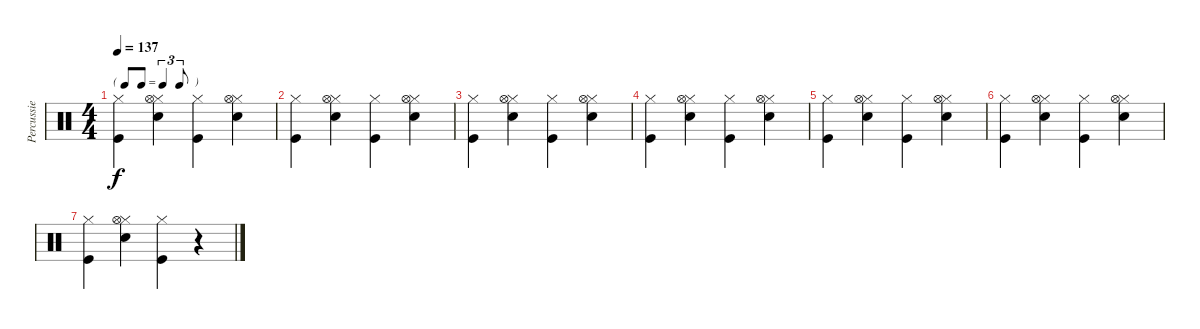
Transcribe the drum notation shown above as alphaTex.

\track ("Percussie" "Percussie") {instrument percussion}
\staff {score}
\articulation defaults
\ts (4 4)
\tf triplet8th
\tempo 137
\clef neutral
\ks c
("Hi-Hat (closed)" "Kick (hit)").4{dy f} ("Hi-Hat (closed)" "Hi-Hat (open)" "Snare (hit) 2").4 ("Hi-Hat (closed)" "Kick (hit)").4 ("Hi-Hat (closed)" "Hi-Hat (open)" "Snare (hit) 2").4 |
("Hi-Hat (closed)" "Kick (hit)").4 ("Hi-Hat (closed)" "Hi-Hat (open)" "Snare (hit) 2").4 ("Hi-Hat (closed)" "Kick (hit)").4 ("Hi-Hat (closed)" "Hi-Hat (open)" "Snare (hit) 2").4 |
("Hi-Hat (closed)" "Kick (hit)").4 ("Hi-Hat (closed)" "Hi-Hat (open)" "Snare (hit) 2").4 ("Hi-Hat (closed)" "Kick (hit)").4 ("Hi-Hat (closed)" "Hi-Hat (open)" "Snare (hit) 2").4 |
("Hi-Hat (closed)" "Kick (hit)").4 ("Hi-Hat (closed)" "Hi-Hat (open)" "Snare (hit) 2").4 ("Hi-Hat (closed)" "Kick (hit)").4 ("Hi-Hat (closed)" "Hi-Hat (open)" "Snare (hit) 2").4 |
("Hi-Hat (closed)" "Kick (hit)").4 ("Hi-Hat (closed)" "Hi-Hat (open)" "Snare (hit) 2").4 ("Hi-Hat (closed)" "Kick (hit)").4 ("Hi-Hat (closed)" "Hi-Hat (open)" "Snare (hit) 2").4 |
("Hi-Hat (closed)" "Kick (hit)").4 ("Hi-Hat (closed)" "Hi-Hat (open)" "Snare (hit) 2").4 ("Hi-Hat (closed)" "Kick (hit)").4 ("Hi-Hat (closed)" "Hi-Hat (open)" "Snare (hit) 2").4 |
("Hi-Hat (closed)" "Kick (hit)").4 ("Hi-Hat (closed)" "Hi-Hat (open)" "Snare (hit) 2").4 ("Hi-Hat (closed)" "Kick (hit)").4 r.4
